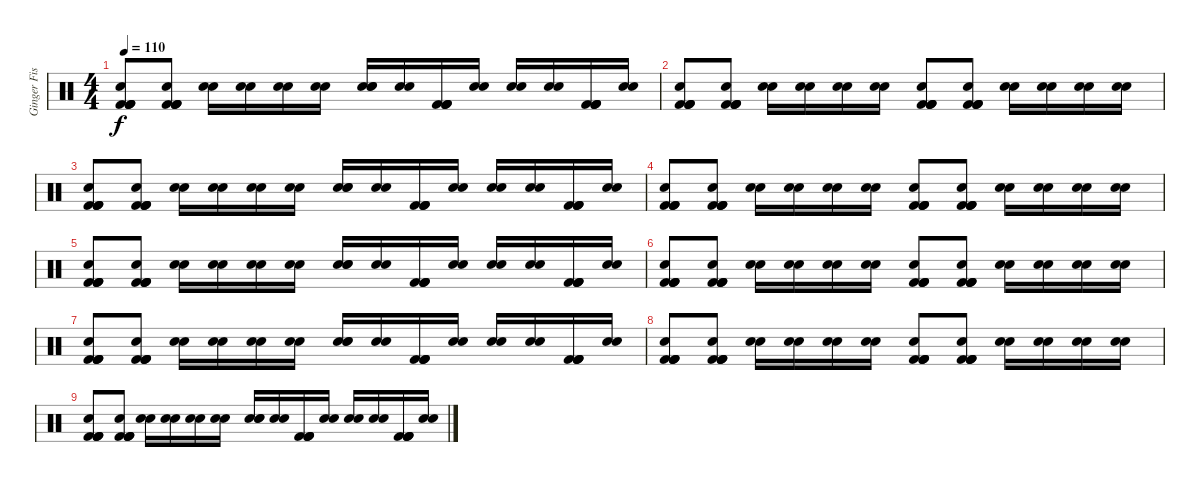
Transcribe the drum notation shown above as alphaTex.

\track ("Ginger Fish" "Ginger Fis") {instrument percussion}
\staff {score}
\articulation defaults
\ts (4 4)
\tempo 110
\clef neutral
\ks c
("Hand Clap (hit)" "Kick (hit) 2" "Kick (hit) 2" "Kick (hit) 2" "Kick (hit) 2").8{dy f} ("Hand Clap (hit)" "Kick (hit) 2" "Kick (hit) 2" "Kick (hit) 2" "Kick (hit) 2").8 ("Electric Snare (hit)" "Electric Snare (hit)").16 ("Electric Snare (hit)" "Electric Snare (hit)").16 ("Electric Snare (hit)" "Electric Snare (hit)").16 ("Electric Snare (hit)" "Electric Snare (hit)").16 ("Hand Clap (hit)" "Electric Snare (hit)" "Electric Snare (hit)").16 ("Electric Snare (hit)" "Electric Snare (hit)").16 ("Kick (hit) 2" "Kick (hit) 2" "Kick (hit) 2" "Kick (hit) 2").16 ("Electric Snare (hit)" "Electric Snare (hit)").16 ("Electric Snare (hit)" "Electric Snare (hit)").16 ("Electric Snare (hit)" "Electric Snare (hit)").16 ("Kick (hit) 2" "Kick (hit) 2" "Kick (hit) 2" "Kick (hit) 2").16 ("Electric Snare (hit)" "Electric Snare (hit)").16 |
("Hand Clap (hit)" "Kick (hit) 2" "Kick (hit) 2" "Kick (hit) 2" "Kick (hit) 2").8 ("Hand Clap (hit)" "Kick (hit) 2" "Kick (hit) 2" "Kick (hit) 2" "Kick (hit) 2").8 ("Electric Snare (hit)" "Electric Snare (hit)").16 ("Electric Snare (hit)" "Electric Snare (hit)").16 ("Electric Snare (hit)" "Electric Snare (hit)").16 ("Electric Snare (hit)" "Electric Snare (hit)").16 ("Hand Clap (hit)" "Kick (hit) 2" "Kick (hit) 2" "Kick (hit) 2" "Kick (hit) 2").8 ("Hand Clap (hit)" "Kick (hit) 2" "Kick (hit) 2" "Kick (hit) 2" "Kick (hit) 2").8 ("Electric Snare (hit)" "Electric Snare (hit)").16 ("Electric Snare (hit)" "Electric Snare (hit)").16 ("Electric Snare (hit)" "Electric Snare (hit)").16 ("Electric Snare (hit)" "Electric Snare (hit)").16 |
("Hand Clap (hit)" "Kick (hit) 2" "Kick (hit) 2" "Kick (hit) 2" "Kick (hit) 2").8 ("Hand Clap (hit)" "Kick (hit) 2" "Kick (hit) 2" "Kick (hit) 2" "Kick (hit) 2").8 ("Electric Snare (hit)" "Electric Snare (hit)").16 ("Electric Snare (hit)" "Electric Snare (hit)").16 ("Electric Snare (hit)" "Electric Snare (hit)").16 ("Electric Snare (hit)" "Electric Snare (hit)").16 ("Hand Clap (hit)" "Electric Snare (hit)" "Electric Snare (hit)").16 ("Electric Snare (hit)" "Electric Snare (hit)").16 ("Kick (hit) 2" "Kick (hit) 2" "Kick (hit) 2" "Kick (hit) 2").16 ("Electric Snare (hit)" "Electric Snare (hit)").16 ("Electric Snare (hit)" "Electric Snare (hit)").16 ("Electric Snare (hit)" "Electric Snare (hit)").16 ("Kick (hit) 2" "Kick (hit) 2" "Kick (hit) 2" "Kick (hit) 2").16 ("Electric Snare (hit)" "Electric Snare (hit)").16 |
("Hand Clap (hit)" "Kick (hit) 2" "Kick (hit) 2" "Kick (hit) 2" "Kick (hit) 2").8 ("Hand Clap (hit)" "Kick (hit) 2" "Kick (hit) 2" "Kick (hit) 2" "Kick (hit) 2").8 ("Electric Snare (hit)" "Electric Snare (hit)").16 ("Electric Snare (hit)" "Electric Snare (hit)").16 ("Electric Snare (hit)" "Electric Snare (hit)").16 ("Electric Snare (hit)" "Electric Snare (hit)").16 ("Hand Clap (hit)" "Kick (hit) 2" "Kick (hit) 2" "Kick (hit) 2" "Kick (hit) 2").8 ("Hand Clap (hit)" "Kick (hit) 2" "Kick (hit) 2" "Kick (hit) 2" "Kick (hit) 2").8 ("Electric Snare (hit)" "Electric Snare (hit)").16 ("Electric Snare (hit)" "Electric Snare (hit)").16 ("Electric Snare (hit)" "Electric Snare (hit)").16 ("Electric Snare (hit)" "Electric Snare (hit)").16 |
("Hand Clap (hit)" "Kick (hit) 2" "Kick (hit) 2" "Kick (hit) 2" "Kick (hit) 2").8 ("Hand Clap (hit)" "Kick (hit) 2" "Kick (hit) 2" "Kick (hit) 2" "Kick (hit) 2").8 ("Electric Snare (hit)" "Electric Snare (hit)").16 ("Electric Snare (hit)" "Electric Snare (hit)").16 ("Electric Snare (hit)" "Electric Snare (hit)").16 ("Electric Snare (hit)" "Electric Snare (hit)").16 ("Hand Clap (hit)" "Electric Snare (hit)" "Electric Snare (hit)").16 ("Electric Snare (hit)" "Electric Snare (hit)").16 ("Kick (hit) 2" "Kick (hit) 2" "Kick (hit) 2" "Kick (hit) 2").16 ("Electric Snare (hit)" "Electric Snare (hit)").16 ("Electric Snare (hit)" "Electric Snare (hit)").16 ("Electric Snare (hit)" "Electric Snare (hit)").16 ("Kick (hit) 2" "Kick (hit) 2" "Kick (hit) 2" "Kick (hit) 2").16 ("Electric Snare (hit)" "Electric Snare (hit)").16 |
("Hand Clap (hit)" "Kick (hit) 2" "Kick (hit) 2" "Kick (hit) 2" "Kick (hit) 2").8 ("Hand Clap (hit)" "Kick (hit) 2" "Kick (hit) 2" "Kick (hit) 2" "Kick (hit) 2").8 ("Electric Snare (hit)" "Electric Snare (hit)").16 ("Electric Snare (hit)" "Electric Snare (hit)").16 ("Electric Snare (hit)" "Electric Snare (hit)").16 ("Electric Snare (hit)" "Electric Snare (hit)").16 ("Hand Clap (hit)" "Kick (hit) 2" "Kick (hit) 2" "Kick (hit) 2" "Kick (hit) 2").8 ("Hand Clap (hit)" "Kick (hit) 2" "Kick (hit) 2" "Kick (hit) 2" "Kick (hit) 2").8 ("Electric Snare (hit)" "Electric Snare (hit)").16 ("Electric Snare (hit)" "Electric Snare (hit)").16 ("Electric Snare (hit)" "Electric Snare (hit)").16 ("Electric Snare (hit)" "Electric Snare (hit)").16 |
("Hand Clap (hit)" "Kick (hit) 2" "Kick (hit) 2" "Kick (hit) 2" "Kick (hit) 2").8 ("Hand Clap (hit)" "Kick (hit) 2" "Kick (hit) 2" "Kick (hit) 2" "Kick (hit) 2").8 ("Electric Snare (hit)" "Electric Snare (hit)").16 ("Electric Snare (hit)" "Electric Snare (hit)").16 ("Electric Snare (hit)" "Electric Snare (hit)").16 ("Electric Snare (hit)" "Electric Snare (hit)").16 ("Hand Clap (hit)" "Electric Snare (hit)" "Electric Snare (hit)").16 ("Electric Snare (hit)" "Electric Snare (hit)").16 ("Kick (hit) 2" "Kick (hit) 2" "Kick (hit) 2" "Kick (hit) 2").16 ("Electric Snare (hit)" "Electric Snare (hit)").16 ("Electric Snare (hit)" "Electric Snare (hit)").16 ("Electric Snare (hit)" "Electric Snare (hit)").16 ("Kick (hit) 2" "Kick (hit) 2" "Kick (hit) 2" "Kick (hit) 2").16 ("Electric Snare (hit)" "Electric Snare (hit)").16 |
("Hand Clap (hit)" "Kick (hit) 2" "Kick (hit) 2" "Kick (hit) 2" "Kick (hit) 2").8 ("Hand Clap (hit)" "Kick (hit) 2" "Kick (hit) 2" "Kick (hit) 2" "Kick (hit) 2").8 ("Electric Snare (hit)" "Electric Snare (hit)").16 ("Electric Snare (hit)" "Electric Snare (hit)").16 ("Electric Snare (hit)" "Electric Snare (hit)").16 ("Electric Snare (hit)" "Electric Snare (hit)").16 ("Hand Clap (hit)" "Kick (hit) 2" "Kick (hit) 2" "Kick (hit) 2" "Kick (hit) 2").8 ("Hand Clap (hit)" "Kick (hit) 2" "Kick (hit) 2" "Kick (hit) 2" "Kick (hit) 2").8 ("Electric Snare (hit)" "Electric Snare (hit)").16 ("Electric Snare (hit)" "Electric Snare (hit)").16 ("Electric Snare (hit)" "Electric Snare (hit)").16 ("Electric Snare (hit)" "Electric Snare (hit)").16 |
("Hand Clap (hit)" "Kick (hit) 2" "Kick (hit) 2" "Kick (hit) 2" "Kick (hit) 2").8 ("Hand Clap (hit)" "Kick (hit) 2" "Kick (hit) 2" "Kick (hit) 2" "Kick (hit) 2").8 ("Electric Snare (hit)" "Electric Snare (hit)").16 ("Electric Snare (hit)" "Electric Snare (hit)").16 ("Electric Snare (hit)" "Electric Snare (hit)").16 ("Electric Snare (hit)" "Electric Snare (hit)").16 ("Hand Clap (hit)" "Electric Snare (hit)" "Electric Snare (hit)").16 ("Electric Snare (hit)" "Electric Snare (hit)").16 ("Kick (hit) 2" "Kick (hit) 2" "Kick (hit) 2" "Kick (hit) 2").16 ("Electric Snare (hit)" "Electric Snare (hit)").16 ("Electric Snare (hit)" "Electric Snare (hit)").16 ("Electric Snare (hit)" "Electric Snare (hit)").16 ("Kick (hit) 2" "Kick (hit) 2" "Kick (hit) 2" "Kick (hit) 2").16 ("Electric Snare (hit)" "Electric Snare (hit)").16
